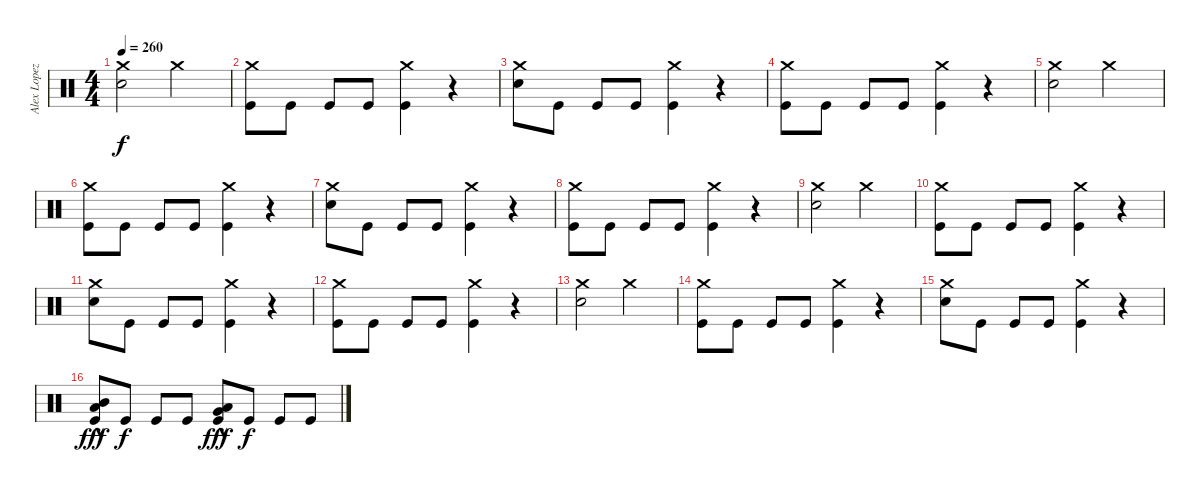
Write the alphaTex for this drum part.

\track ("Alex Lopez" "Alex Lopez") {instrument percussion}
\staff {score}
\articulation defaults
\ts (4 4)
\tempo 260
\clef neutral
\ks c
("Crash medium (hit)" "Electric Snare (hit)").2{dy f} "Crash medium (hit)".2 |
("Crash medium (hit)" "Kick (hit)").8 "Kick (hit)".8 "Kick (hit)".8 "Kick (hit)".8 ("Crash medium (hit)" "Kick (hit)").4 r.4 |
("Crash medium (hit)" "Electric Snare (hit)").8 "Kick (hit)".8 "Kick (hit)".8 "Kick (hit)".8 ("Crash medium (hit)" "Kick (hit)").4 r.4 |
("Crash medium (hit)" "Kick (hit)").8 "Kick (hit)".8 "Kick (hit)".8 "Kick (hit)".8 ("Crash medium (hit)" "Kick (hit)").4 r.4 |
("Crash medium (hit)" "Electric Snare (hit)").2 "Crash medium (hit)".2 |
("Crash medium (hit)" "Kick (hit)").8 "Kick (hit)".8 "Kick (hit)".8 "Kick (hit)".8 ("Crash medium (hit)" "Kick (hit)").4 r.4 |
("Crash medium (hit)" "Electric Snare (hit)").8 "Kick (hit)".8 "Kick (hit)".8 "Kick (hit)".8 ("Crash medium (hit)" "Kick (hit)").4 r.4 |
("Crash medium (hit)" "Kick (hit)").8 "Kick (hit)".8 "Kick (hit)".8 "Kick (hit)".8 ("Crash medium (hit)" "Kick (hit)").4 r.4 |
("Crash medium (hit)" "Electric Snare (hit)").2 "Crash medium (hit)".2 |
("Crash medium (hit)" "Kick (hit)").8 "Kick (hit)".8 "Kick (hit)".8 "Kick (hit)".8 ("Crash medium (hit)" "Kick (hit)").4 r.4 |
("Crash medium (hit)" "Electric Snare (hit)").8 "Kick (hit)".8 "Kick (hit)".8 "Kick (hit)".8 ("Crash medium (hit)" "Kick (hit)").4 r.4 |
("Crash medium (hit)" "Kick (hit)").8 "Kick (hit)".8 "Kick (hit)".8 "Kick (hit)".8 ("Crash medium (hit)" "Kick (hit)").4 r.4 |
("Crash medium (hit)" "Electric Snare (hit)").2 "Crash medium (hit)".2 |
("Crash medium (hit)" "Kick (hit)").8 "Kick (hit)".8 "Kick (hit)".8 "Kick (hit)".8 ("Crash medium (hit)" "Kick (hit)").4 r.4 |
("Crash medium (hit)" "Electric Snare (hit)").8 "Kick (hit)".8 "Kick (hit)".8 "Kick (hit)".8 ("Crash medium (hit)" "Kick (hit)").4 r.4 |
("Mid Tom (hit)"{hac} "Low Tom (hit)"{hac} "Kick (hit)").8{dy fff} "Kick (hit)".8{dy f} "Kick (hit)".8 "Kick (hit)".8 ("Very Low Tom (hit)"{hac} "Low Floor Tom (hit)"{hac} "Kick (hit)").8{dy fff} "Kick (hit)".8{dy f} "Kick (hit)".8 "Kick (hit)".8
